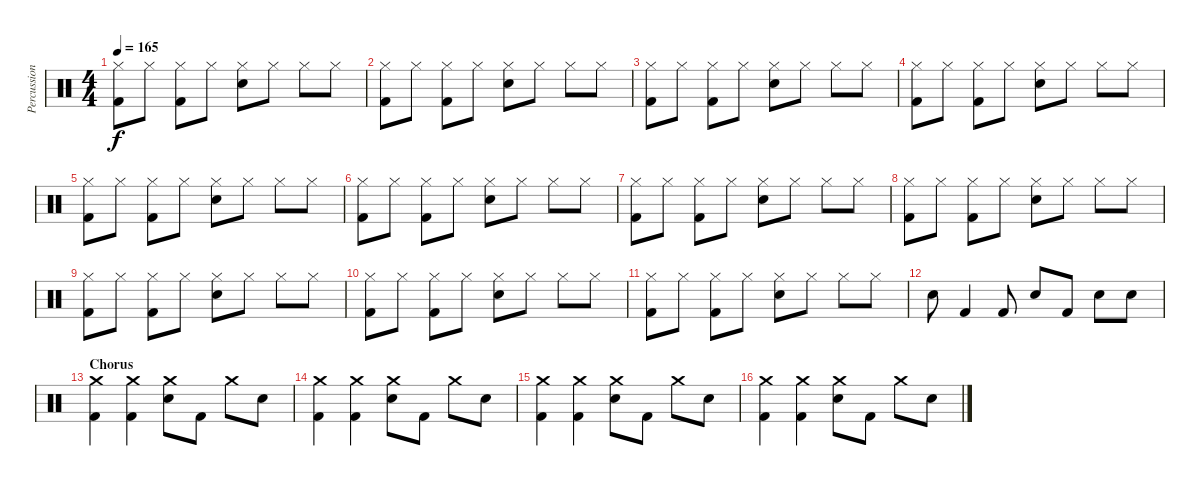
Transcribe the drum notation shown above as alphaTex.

\track ("Percussion" "Percussion") {instrument percussion}
\staff {score}
\articulation defaults
\ts (4 4)
\tempo 165
\clef neutral
\ks c
("Hi-Hat (closed)" "Kick (hit) 2").8{dy f} "Hi-Hat (closed)".8 ("Hi-Hat (closed)" "Kick (hit) 2").8 "Hi-Hat (closed)".8 ("Hi-Hat (closed)" "Snare (hit) 2").8 "Hi-Hat (closed)".8 "Hi-Hat (closed)".8 "Hi-Hat (closed)".8 |
("Hi-Hat (closed)" "Kick (hit) 2").8 "Hi-Hat (closed)".8 ("Hi-Hat (closed)" "Kick (hit) 2").8 "Hi-Hat (closed)".8 ("Hi-Hat (closed)" "Snare (hit) 2").8 "Hi-Hat (closed)".8 "Hi-Hat (closed)".8 "Hi-Hat (closed)".8 |
("Hi-Hat (closed)" "Kick (hit) 2").8 "Hi-Hat (closed)".8 ("Hi-Hat (closed)" "Kick (hit) 2").8 "Hi-Hat (closed)".8 ("Hi-Hat (closed)" "Snare (hit) 2").8 "Hi-Hat (closed)".8 "Hi-Hat (closed)".8 "Hi-Hat (closed)".8 |
("Hi-Hat (closed)" "Kick (hit) 2").8 "Hi-Hat (closed)".8 ("Hi-Hat (closed)" "Kick (hit) 2").8 "Hi-Hat (closed)".8 ("Hi-Hat (closed)" "Snare (hit) 2").8 "Hi-Hat (closed)".8 "Hi-Hat (closed)".8 "Hi-Hat (closed)".8 |
("Hi-Hat (closed)" "Kick (hit) 2").8 "Hi-Hat (closed)".8 ("Hi-Hat (closed)" "Kick (hit) 2").8 "Hi-Hat (closed)".8 ("Hi-Hat (closed)" "Snare (hit) 2").8 "Hi-Hat (closed)".8 "Hi-Hat (closed)".8 "Hi-Hat (closed)".8 |
("Hi-Hat (closed)" "Kick (hit) 2").8 "Hi-Hat (closed)".8 ("Hi-Hat (closed)" "Kick (hit) 2").8 "Hi-Hat (closed)".8 ("Hi-Hat (closed)" "Snare (hit) 2").8 "Hi-Hat (closed)".8 "Hi-Hat (closed)".8 "Hi-Hat (closed)".8 |
("Hi-Hat (closed)" "Kick (hit) 2").8 "Hi-Hat (closed)".8 ("Hi-Hat (closed)" "Kick (hit) 2").8 "Hi-Hat (closed)".8 ("Hi-Hat (closed)" "Snare (hit) 2").8 "Hi-Hat (closed)".8 "Hi-Hat (closed)".8 "Hi-Hat (closed)".8 |
("Hi-Hat (closed)" "Kick (hit) 2").8 "Hi-Hat (closed)".8 ("Hi-Hat (closed)" "Kick (hit) 2").8 "Hi-Hat (closed)".8 ("Hi-Hat (closed)" "Snare (hit) 2").8 "Hi-Hat (closed)".8 "Hi-Hat (closed)".8 "Hi-Hat (closed)".8 |
("Hi-Hat (closed)" "Kick (hit) 2").8 "Hi-Hat (closed)".8 ("Hi-Hat (closed)" "Kick (hit) 2").8 "Hi-Hat (closed)".8 ("Hi-Hat (closed)" "Snare (hit) 2").8 "Hi-Hat (closed)".8 "Hi-Hat (closed)".8 "Hi-Hat (closed)".8 |
("Hi-Hat (closed)" "Kick (hit) 2").8 "Hi-Hat (closed)".8 ("Hi-Hat (closed)" "Kick (hit) 2").8 "Hi-Hat (closed)".8 ("Hi-Hat (closed)" "Snare (hit) 2").8 "Hi-Hat (closed)".8 "Hi-Hat (closed)".8 "Hi-Hat (closed)".8 |
("Hi-Hat (closed)" "Kick (hit) 2").8 "Hi-Hat (closed)".8 ("Hi-Hat (closed)" "Kick (hit) 2").8 "Hi-Hat (closed)".8 ("Hi-Hat (closed)" "Snare (hit) 2").8 "Hi-Hat (closed)".8 "Hi-Hat (closed)".8 "Hi-Hat (closed)".8 |
"Snare (hit) 2".8 "Kick (hit) 2".4 "Kick (hit) 2".8 "Snare (hit) 2".8 "Kick (hit) 2".8 "Snare (hit) 2".8 "Snare (hit) 2".8 |
\section ("" "Chorus")
("Crash medium (hit)" "Kick (hit) 2").4 ("Crash medium (hit)" "Kick (hit) 2").4 ("Crash medium (hit)" "Snare (hit) 2").8 "Kick (hit) 2".8 "Crash medium (hit)".8 "Snare (hit) 2".8 |
("Crash medium (hit)" "Kick (hit) 2").4 ("Crash medium (hit)" "Kick (hit) 2").4 ("Crash medium (hit)" "Snare (hit) 2").8 "Kick (hit) 2".8 "Crash medium (hit)".8 "Snare (hit) 2".8 |
("Crash medium (hit)" "Kick (hit) 2").4 ("Crash medium (hit)" "Kick (hit) 2").4 ("Crash medium (hit)" "Snare (hit) 2").8 "Kick (hit) 2".8 "Crash medium (hit)".8 "Snare (hit) 2".8 |
("Crash medium (hit)" "Kick (hit) 2").4 ("Crash medium (hit)" "Kick (hit) 2").4 ("Crash medium (hit)" "Snare (hit) 2").8 "Kick (hit) 2".8 "Crash medium (hit)".8 "Snare (hit) 2".8
